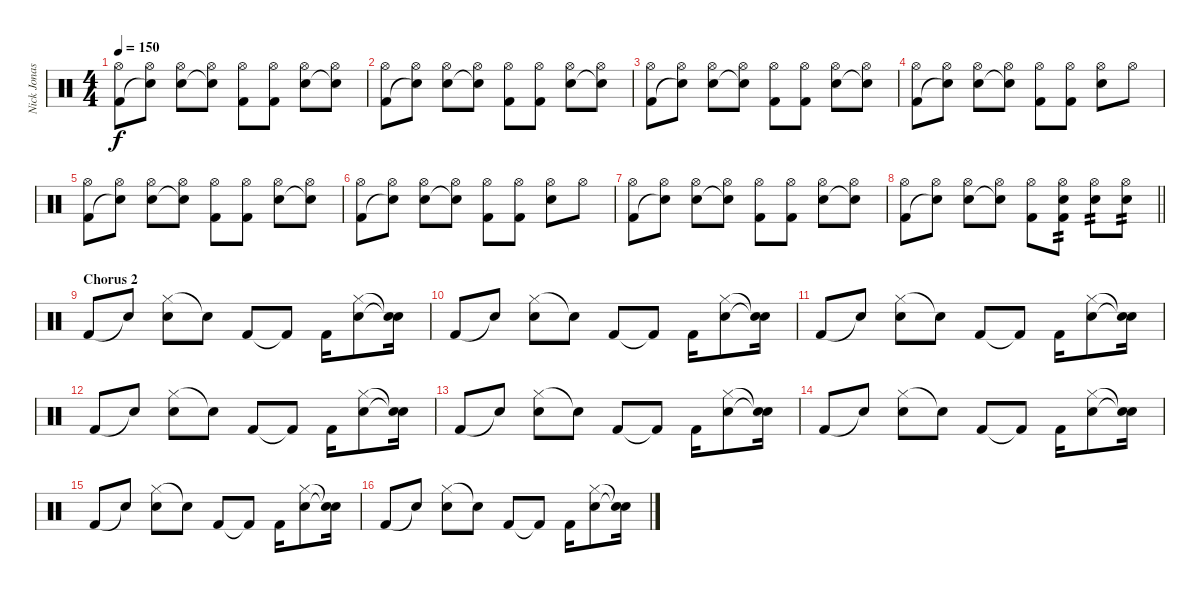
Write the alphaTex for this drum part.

\track ("Nick Jonas Drums" "Nick Jonas") {instrument percussion}
\staff {score}
\articulation defaults
\ts (4 4)
\tempo 150
\clef neutral
\ks c
("Hi-Hat (open)" "Kick (hit) 2").8{dy f} ("Hi-Hat (open)" "Snare (hit)"{t}).8 ("Hi-Hat (open)" "Electric Snare (hit)").8 ("Hi-Hat (open)" "Snare (hit)"{t}).8 ("Hi-Hat (open)" "Kick (hit) 2").8 ("Hi-Hat (open)" "Kick (hit) 2").8 ("Hi-Hat (open)" "Electric Snare (hit)").8 ("Hi-Hat (open)" "Snare (hit)"{t}).8 |
("Hi-Hat (open)" "Kick (hit) 2").8 ("Hi-Hat (open)" "Snare (hit)"{t}).8 ("Hi-Hat (open)" "Electric Snare (hit)").8 ("Hi-Hat (open)" "Snare (hit)"{t}).8 ("Hi-Hat (open)" "Kick (hit) 2").8 ("Hi-Hat (open)" "Kick (hit) 2").8 ("Hi-Hat (open)" "Electric Snare (hit)").8 ("Hi-Hat (open)" "Snare (hit)"{t}).8 |
("Hi-Hat (open)" "Kick (hit) 2").8 ("Hi-Hat (open)" "Snare (hit)"{t}).8 ("Hi-Hat (open)" "Electric Snare (hit)").8 ("Hi-Hat (open)" "Snare (hit)"{t}).8 ("Hi-Hat (open)" "Kick (hit) 2").8 ("Hi-Hat (open)" "Kick (hit) 2").8 ("Hi-Hat (open)" "Electric Snare (hit)").8 ("Hi-Hat (open)" "Snare (hit)"{t}).8 |
("Hi-Hat (open)" "Kick (hit) 2").8 ("Hi-Hat (open)" "Snare (hit)"{t}).8 ("Hi-Hat (open)" "Electric Snare (hit)").8 ("Hi-Hat (open)" "Snare (hit)"{t}).8 ("Hi-Hat (open)" "Kick (hit) 2").8 ("Hi-Hat (open)" "Kick (hit) 2").8 ("Hi-Hat (open)" "Electric Snare (hit)").8 "Hi-Hat (open)".8 |
("Hi-Hat (open)" "Kick (hit) 2").8 ("Hi-Hat (open)" "Snare (hit)"{t}).8 ("Hi-Hat (open)" "Electric Snare (hit)").8 ("Hi-Hat (open)" "Snare (hit)"{t}).8 ("Hi-Hat (open)" "Kick (hit) 2").8 ("Hi-Hat (open)" "Kick (hit) 2").8 ("Hi-Hat (open)" "Electric Snare (hit)").8 ("Hi-Hat (open)" "Snare (hit)"{t}).8 |
("Hi-Hat (open)" "Kick (hit) 2").8 ("Hi-Hat (open)" "Snare (hit)"{t}).8 ("Hi-Hat (open)" "Electric Snare (hit)").8 ("Hi-Hat (open)" "Snare (hit)"{t}).8 ("Hi-Hat (open)" "Kick (hit) 2").8 ("Hi-Hat (open)" "Kick (hit) 2").8 ("Hi-Hat (open)" "Electric Snare (hit)").8 "Hi-Hat (open)".8 |
("Hi-Hat (open)" "Kick (hit) 2").8 ("Hi-Hat (open)" "Snare (hit)"{t}).8 ("Hi-Hat (open)" "Electric Snare (hit)").8 ("Hi-Hat (open)" "Snare (hit)"{t}).8 ("Hi-Hat (open)" "Kick (hit) 2").8 ("Hi-Hat (open)" "Kick (hit) 2").8 ("Hi-Hat (open)" "Electric Snare (hit)").8 ("Hi-Hat (open)" "Snare (hit)"{t}).8 |
\barLineRight lightlight
("Hi-Hat (open)" "Kick (hit) 2").8 ("Hi-Hat (open)" "Snare (hit)"{t}).8 ("Hi-Hat (open)" "Electric Snare (hit)").8 ("Hi-Hat (open)" "Snare (hit)"{t}).8 ("Hi-Hat (open)" "Kick (hit) 2").8 ("Hi-Hat (open)" "Electric Snare (hit)" "Kick (hit) 2").8{tp 2} ("Hi-Hat (open)" "Electric Snare (hit)").8{tp 2} ("Hi-Hat (open)" "Electric Snare (hit)").8{tp 2} |
\section ("" "Chorus 2")
"Kick (hit) 2".8 "Snare (hit)"{t}.8 ("Hi-Hat (closed)" "Electric Snare (hit)").8 "Snare (hit)"{t}.8 "Kick (hit) 2".8 "Kick (hit) 2"{t}.8 "Kick (hit) 2".16 ("Hi-Hat (closed)" "Electric Snare (hit)").8 ("Snare (hit)"{t} "Snare (hit)"{t}).16 |
"Kick (hit) 2".8 "Snare (hit)"{t}.8 ("Hi-Hat (closed)" "Electric Snare (hit)").8 "Snare (hit)"{t}.8 "Kick (hit) 2".8 "Kick (hit) 2"{t}.8 "Kick (hit) 2".16 ("Hi-Hat (closed)" "Electric Snare (hit)").8 ("Snare (hit)"{t} "Snare (hit)"{t}).16 |
"Kick (hit) 2".8 "Snare (hit)"{t}.8 ("Hi-Hat (closed)" "Electric Snare (hit)").8 "Snare (hit)"{t}.8 "Kick (hit) 2".8 "Kick (hit) 2"{t}.8 "Kick (hit) 2".16 ("Hi-Hat (closed)" "Electric Snare (hit)").8 ("Snare (hit)"{t} "Snare (hit)"{t}).16 |
"Kick (hit) 2".8 "Snare (hit)"{t}.8 ("Hi-Hat (closed)" "Electric Snare (hit)").8 "Snare (hit)"{t}.8 "Kick (hit) 2".8 "Kick (hit) 2"{t}.8 "Kick (hit) 2".16 ("Hi-Hat (closed)" "Electric Snare (hit)").8 ("Snare (hit)"{t} "Snare (hit)"{t}).16 |
"Kick (hit) 2".8 "Snare (hit)"{t}.8 ("Hi-Hat (closed)" "Electric Snare (hit)").8 "Snare (hit)"{t}.8 "Kick (hit) 2".8 "Kick (hit) 2"{t}.8 "Kick (hit) 2".16 ("Hi-Hat (closed)" "Electric Snare (hit)").8 ("Snare (hit)"{t} "Snare (hit)"{t}).16 |
"Kick (hit) 2".8 "Snare (hit)"{t}.8 ("Hi-Hat (closed)" "Electric Snare (hit)").8 "Snare (hit)"{t}.8 "Kick (hit) 2".8 "Kick (hit) 2"{t}.8 "Kick (hit) 2".16 ("Hi-Hat (closed)" "Electric Snare (hit)").8 ("Snare (hit)"{t} "Snare (hit)"{t}).16 |
"Kick (hit) 2".8 "Snare (hit)"{t}.8 ("Hi-Hat (closed)" "Electric Snare (hit)").8 "Snare (hit)"{t}.8 "Kick (hit) 2".8 "Kick (hit) 2"{t}.8 "Kick (hit) 2".16 ("Hi-Hat (closed)" "Electric Snare (hit)").8 ("Snare (hit)"{t} "Snare (hit)"{t}).16 |
"Kick (hit) 2".8 "Snare (hit)"{t}.8 ("Hi-Hat (closed)" "Electric Snare (hit)").8 "Snare (hit)"{t}.8 "Kick (hit) 2".8 "Kick (hit) 2"{t}.8 "Kick (hit) 2".16 ("Hi-Hat (closed)" "Electric Snare (hit)").8 ("Snare (hit)"{t} "Snare (hit)"{t}).16
